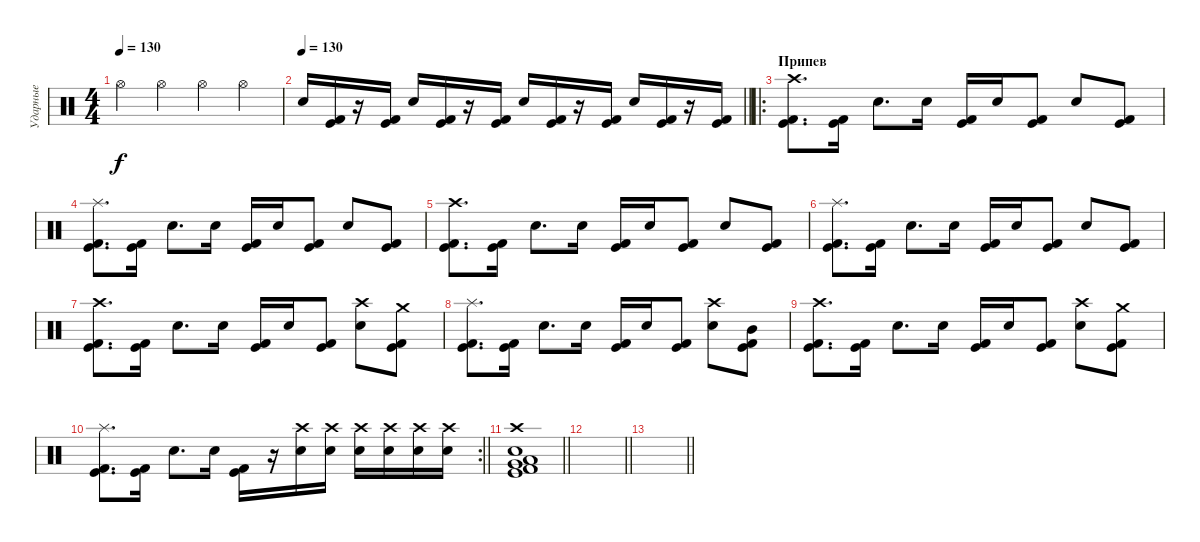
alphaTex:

\track ("Ударные" "Ударные") {solo instrument percussion}
\staff {score}
\articulation defaults
\ts (4 4)
\tempo 130
\clef neutral
\ks c "Hi-Hat (open)".4{dy f} "Hi-Hat (open)".4 "Hi-Hat (open)".4 "Hi-Hat (open)".4
|
\tempo 120
\tempo 130
\barLineRight lightlight "Electric Snare (hit)".16
("Kick (hit) 2" "Kick (hit)").16 r.16 ("Kick (hit) 2" "Kick (hit)").16 "Electric Snare (hit)".16 ("Kick (hit) 2" "Kick (hit)").16 r.16 ("Kick (hit) 2" "Kick (hit)").16 "Electric Snare (hit)".16 ("Kick (hit) 2" "Kick (hit)").16 r.16 ("Kick (hit) 2" "Kick (hit)").16 "Electric Snare (hit)".16 ("Kick (hit) 2" "Kick (hit)").16 r.16 ("Kick (hit) 2" "Kick (hit)").16 |
\ro
\section ("" "Припев")
("Crash high (hit)" "Kick (hit)" "Kick (hit) 2").8{d} ("Kick (hit)" "Kick (hit) 2").16 "Snare (hit) 2".8{d} "Snare (hit) 2".16 ("Kick (hit)" "Kick (hit) 2").16 "Snare (hit) 2".16 ("Kick (hit)" "Kick (hit) 2").8 "Snare (hit) 2".8 ("Kick (hit)" "Kick (hit) 2").8 |
("Splash (hit)" "Kick (hit)" "Kick (hit) 2").8{d} ("Kick (hit)" "Kick (hit) 2").16 "Snare (hit) 2".8{d} "Snare (hit) 2".16 ("Kick (hit)" "Kick (hit) 2").16 "Snare (hit) 2".16 ("Kick (hit)" "Kick (hit) 2").8 "Snare (hit) 2".8 ("Kick (hit)" "Kick (hit) 2").8 |
("Crash high (hit)" "Kick (hit)" "Kick (hit) 2").8{d} ("Kick (hit)" "Kick (hit) 2").16 "Snare (hit) 2".8{d} "Snare (hit) 2".16 ("Kick (hit)" "Kick (hit) 2").16 "Snare (hit) 2".16 ("Kick (hit)" "Kick (hit) 2").8 "Snare (hit) 2".8 ("Kick (hit)" "Kick (hit) 2").8 |
("Splash (hit)" "Kick (hit)" "Kick (hit) 2").8{d} ("Kick (hit)" "Kick (hit) 2").16 "Snare (hit) 2".8{d} "Snare (hit) 2".16 ("Kick (hit)" "Kick (hit) 2").16 "Snare (hit) 2".16 ("Kick (hit)" "Kick (hit) 2").8 "Snare (hit) 2".8 ("Kick (hit)" "Kick (hit) 2").8 |
("Crash high (hit)" "Kick (hit)" "Kick (hit) 2").8{d} ("Kick (hit)" "Kick (hit) 2").16 "Snare (hit) 2".8{d} "Snare (hit) 2".16 ("Kick (hit)" "Kick (hit) 2").16 "Snare (hit) 2".16 ("Kick (hit)" "Kick (hit) 2").8 ("Crash high (hit)" "Snare (hit) 2").8 ("Crash medium (hit)" "Kick (hit)" "Kick (hit) 2").8 |
("Splash (hit)" "Kick (hit)" "Kick (hit) 2").8{d} ("Kick (hit)" "Kick (hit) 2").16 "Snare (hit) 2".8{d} "Snare (hit) 2".16 ("Kick (hit)" "Kick (hit) 2").16 "Snare (hit) 2".16 ("Kick (hit)" "Kick (hit) 2").8 ("Crash high (hit)" "Snare (hit) 2").8 ("Mid Tom (hit)" "Kick (hit)" "Kick (hit) 2").8 |
("Crash high (hit)" "Kick (hit)" "Kick (hit) 2").8{d} ("Kick (hit)" "Kick (hit) 2").16 "Snare (hit) 2".8{d} "Snare (hit) 2".16 ("Kick (hit)" "Kick (hit) 2").16 "Snare (hit) 2".16 ("Kick (hit)" "Kick (hit) 2").8 ("Crash high (hit)" "Snare (hit) 2").8 ("Crash medium (hit)" "Kick (hit)" "Kick (hit) 2").8 |
\rc 2
\barLineRight lightlight
("Splash (hit)" "Kick (hit)" "Kick (hit) 2").8{d} ("Kick (hit)" "Kick (hit) 2").16 "Snare (hit) 2".8{d} "Snare (hit) 2".16 ("Kick (hit)" "Kick (hit) 2").16 r.16 ("Crash high (hit)" "Snare (hit) 2").16 ("Crash high (hit)" "Snare (hit) 2").16 ("Crash high (hit)" "Snare (hit) 2").16 ("Crash high (hit)" "Snare (hit) 2").16 ("Crash high (hit)" "Snare (hit) 2").16 ("Crash high (hit)" "Snare (hit) 2").16 |
\barLineRight lightlight
("Crash high (hit)" "Snare (hit) 2" "Very Low Tom (hit)" "Kick (hit)" "Kick (hit) 2" "Low Floor Tom (hit)").1 |
\barLineRight lightlight
|
\barLineRight lightlight
